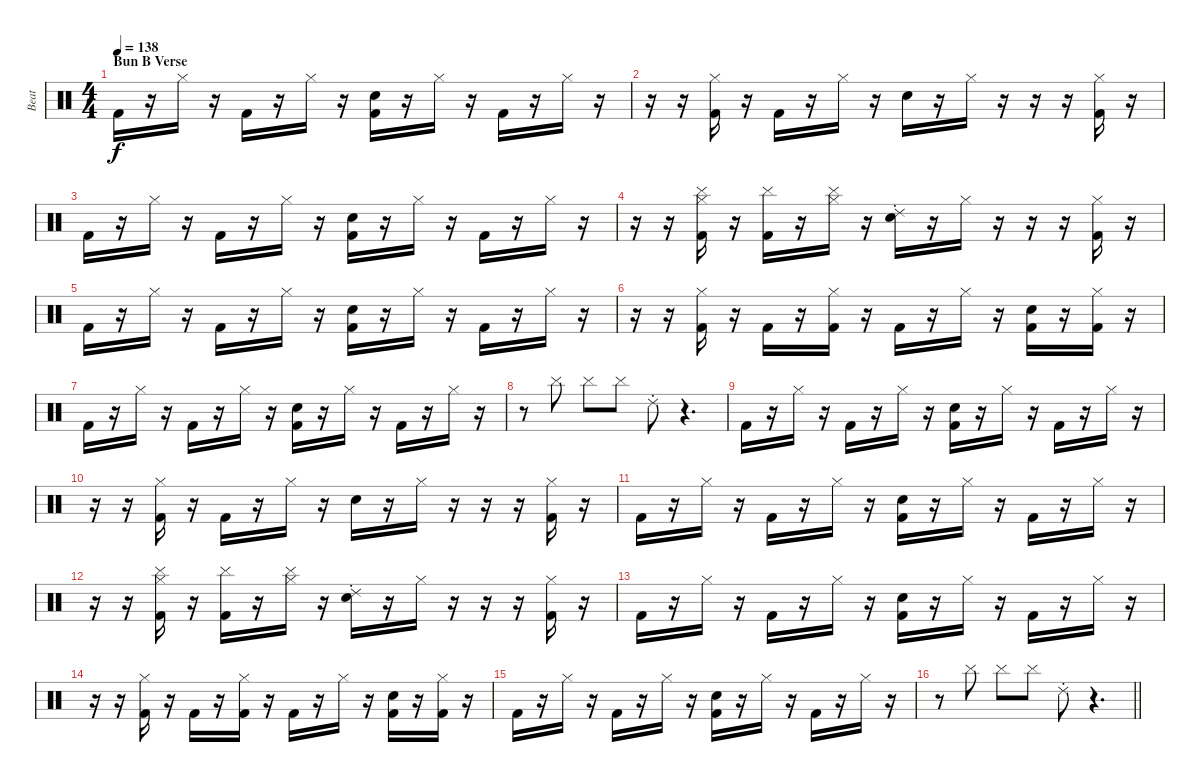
\track ("Beat" "Beat") {instrument percussion}
\staff {score}
\articulation defaults
\ts (4 4)
\section ("" "Bun B Verse")
\tempo 138
\clef neutral
\ks c "Kick (hit) 2".16{dy f}
r.16 "Hi-Hat (closed)".16 r.16 "Kick (hit) 2".16 r.16 "Hi-Hat (closed)".16 r.16 ("Electric Snare (hit)" "Kick (hit) 2").16 r.16 "Hi-Hat (closed)".16 r.16 "Kick (hit) 2".16 r.16 "Hi-Hat (closed)".16 r.16 |
r.16 r.16 ("Hi-Hat (closed)" "Kick (hit) 2").16 r.16 "Kick (hit) 2".16 r.16 "Hi-Hat (closed)".16 r.16 "Electric Snare (hit)".16 r.16 "Hi-Hat (closed)".16 r.16 r.16 r.16 ("Hi-Hat (closed)" "Kick (hit) 2").16 r.16 |
"Kick (hit) 2".16 r.16 "Hi-Hat (closed)".16 r.16 "Kick (hit) 2".16 r.16 "Hi-Hat (closed)".16 r.16 ("Electric Snare (hit)" "Kick (hit) 2").16 r.16 "Hi-Hat (closed)".16 r.16 "Kick (hit) 2".16 r.16 "Hi-Hat (closed)".16 r.16 |
r.16 r.16 ("Cymbal (hit)" "Hi-Hat (closed)" "Kick (hit) 2").16 r.16 ("Cymbal (hit)" "Kick (hit) 2").16 r.16 ("Cymbal (hit)" "Hi-Hat (closed)").16 r.16 ("Ride (choke) 2" "Electric Snare (hit)").16 r.16 "Hi-Hat (closed)".16 r.16 r.16 r.16 ("Hi-Hat (closed)" "Kick (hit) 2").16 r.16 |
"Kick (hit) 2".16 r.16 "Hi-Hat (closed)".16 r.16 "Kick (hit) 2".16 r.16 "Hi-Hat (closed)".16 r.16 ("Electric Snare (hit)" "Kick (hit) 2").16 r.16 "Hi-Hat (closed)".16 r.16 "Kick (hit) 2".16 r.16 "Hi-Hat (closed)".16 r.16 |
r.16 r.16 ("Hi-Hat (closed)" "Kick (hit) 2").16 r.16 "Kick (hit) 2".16 r.16 ("Hi-Hat (closed)" "Kick (hit) 2").16 r.16 "Kick (hit) 2".16 r.16 "Hi-Hat (closed)".16 r.16 ("Electric Snare (hit)" "Kick (hit) 2").16 r.16 ("Hi-Hat (closed)" "Kick (hit) 2").16 r.16 |
"Kick (hit) 2".16 r.16 "Hi-Hat (closed)".16 r.16 "Kick (hit) 2".16 r.16 "Hi-Hat (closed)".16 r.16 ("Electric Snare (hit)" "Kick (hit) 2").16 r.16 "Hi-Hat (closed)".16 r.16 "Kick (hit) 2".16 r.16 "Hi-Hat (closed)".16 r.16 |
r.8 "Cymbal (hit)".8 "Cymbal (hit)".8 "Cymbal (hit)".8 "Ride (choke) 2".8 r.4{d} |
"Kick (hit) 2".16 r.16 "Hi-Hat (closed)".16 r.16 "Kick (hit) 2".16 r.16 "Hi-Hat (closed)".16 r.16 ("Electric Snare (hit)" "Kick (hit) 2").16 r.16 "Hi-Hat (closed)".16 r.16 "Kick (hit) 2".16 r.16 "Hi-Hat (closed)".16 r.16 |
r.16 r.16 ("Hi-Hat (closed)" "Kick (hit) 2").16 r.16 "Kick (hit) 2".16 r.16 "Hi-Hat (closed)".16 r.16 "Electric Snare (hit)".16 r.16 "Hi-Hat (closed)".16 r.16 r.16 r.16 ("Hi-Hat (closed)" "Kick (hit) 2").16 r.16 |
"Kick (hit) 2".16 r.16 "Hi-Hat (closed)".16 r.16 "Kick (hit) 2".16 r.16 "Hi-Hat (closed)".16 r.16 ("Electric Snare (hit)" "Kick (hit) 2").16 r.16 "Hi-Hat (closed)".16 r.16 "Kick (hit) 2".16 r.16 "Hi-Hat (closed)".16 r.16 |
r.16 r.16 ("Cymbal (hit)" "Hi-Hat (closed)" "Kick (hit) 2").16 r.16 ("Cymbal (hit)" "Kick (hit) 2").16 r.16 ("Cymbal (hit)" "Hi-Hat (closed)").16 r.16 ("Ride (choke) 2" "Electric Snare (hit)").16 r.16 "Hi-Hat (closed)".16 r.16 r.16 r.16 ("Hi-Hat (closed)" "Kick (hit) 2").16 r.16 |
"Kick (hit) 2".16 r.16 "Hi-Hat (closed)".16 r.16 "Kick (hit) 2".16 r.16 "Hi-Hat (closed)".16 r.16 ("Electric Snare (hit)" "Kick (hit) 2").16 r.16 "Hi-Hat (closed)".16 r.16 "Kick (hit) 2".16 r.16 "Hi-Hat (closed)".16 r.16 |
r.16 r.16 ("Hi-Hat (closed)" "Kick (hit) 2").16 r.16 "Kick (hit) 2".16 r.16 ("Hi-Hat (closed)" "Kick (hit) 2").16 r.16 "Kick (hit) 2".16 r.16 "Hi-Hat (closed)".16 r.16 ("Electric Snare (hit)" "Kick (hit) 2").16 r.16 ("Hi-Hat (closed)" "Kick (hit) 2").16 r.16 |
"Kick (hit) 2".16 r.16 "Hi-Hat (closed)".16 r.16 "Kick (hit) 2".16 r.16 "Hi-Hat (closed)".16 r.16 ("Electric Snare (hit)" "Kick (hit) 2").16 r.16 "Hi-Hat (closed)".16 r.16 "Kick (hit) 2".16 r.16 "Hi-Hat (closed)".16 r.16 |
\barLineRight lightlight
r.8 "Cymbal (hit)".8 "Cymbal (hit)".8 "Cymbal (hit)".8 "Ride (choke) 2".8 r.4{d}
